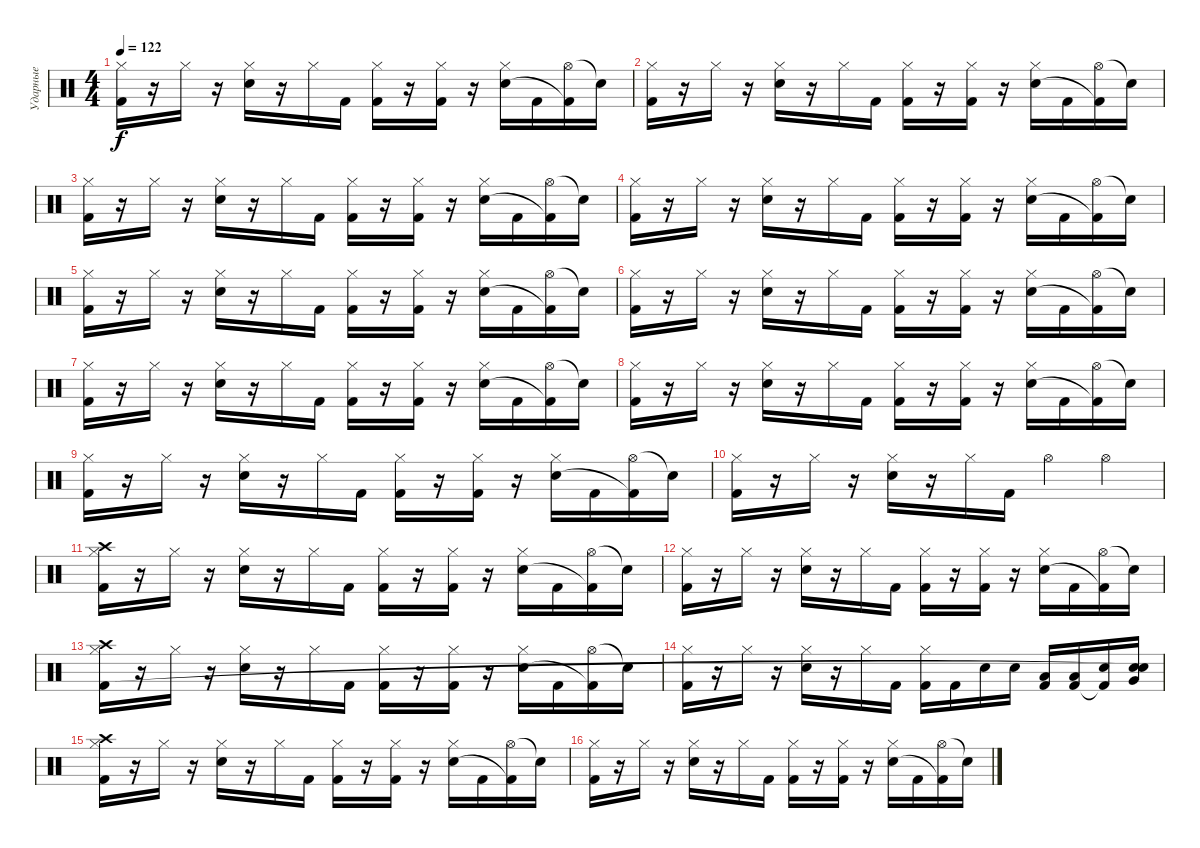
\track ("Ударные" "Ударные") {instrument percussion}
\staff {score}
\articulation defaults
\ts (4 4)
\tempo 122
\clef neutral
\ks c
("Hi-Hat (closed)" "Kick (hit) 2").16{dy f} r.16 "Hi-Hat (closed)".16 r.16 ("Hi-Hat (closed)" "Snare (hit) 2").16 r.16 "Hi-Hat (closed)".16 "Kick (hit) 2".16 ("Hi-Hat (closed)" "Kick (hit) 2").16 r.16 ("Hi-Hat (closed)" "Kick (hit) 2").16 r.16 ("Hi-Hat (closed)" "Snare (hit) 2").16 "Kick (hit) 2".16 ("Hi-Hat (open)" "Kick (hit) 2"{t}).16 "Snare (hit)"{t}.16 |
("Hi-Hat (closed)" "Kick (hit) 2").16 r.16 "Hi-Hat (closed)".16 r.16 ("Hi-Hat (closed)" "Snare (hit) 2").16 r.16 "Hi-Hat (closed)".16 "Kick (hit) 2".16 ("Hi-Hat (closed)" "Kick (hit) 2").16 r.16 ("Hi-Hat (closed)" "Kick (hit) 2").16 r.16 ("Hi-Hat (closed)" "Snare (hit) 2").16 "Kick (hit) 2".16 ("Hi-Hat (open)" "Kick (hit) 2"{t}).16 "Snare (hit)"{t}.16 |
("Hi-Hat (closed)" "Kick (hit) 2").16 r.16 "Hi-Hat (closed)".16 r.16 ("Hi-Hat (closed)" "Snare (hit) 2").16 r.16 "Hi-Hat (closed)".16 "Kick (hit) 2".16 ("Hi-Hat (closed)" "Kick (hit) 2").16 r.16 ("Hi-Hat (closed)" "Kick (hit) 2").16 r.16 ("Hi-Hat (closed)" "Snare (hit) 2").16 "Kick (hit) 2".16 ("Hi-Hat (open)" "Kick (hit) 2"{t}).16 "Snare (hit)"{t}.16 |
("Hi-Hat (closed)" "Kick (hit) 2").16 r.16 "Hi-Hat (closed)".16 r.16 ("Hi-Hat (closed)" "Snare (hit) 2").16 r.16 "Hi-Hat (closed)".16 "Kick (hit) 2".16 ("Hi-Hat (closed)" "Kick (hit) 2").16 r.16 ("Hi-Hat (closed)" "Kick (hit) 2").16 r.16 ("Hi-Hat (closed)" "Snare (hit) 2").16 "Kick (hit) 2".16 ("Hi-Hat (open)" "Kick (hit) 2"{t}).16 "Snare (hit)"{t}.16 |
("Hi-Hat (closed)" "Kick (hit) 2").16 r.16 "Hi-Hat (closed)".16 r.16 ("Hi-Hat (closed)" "Snare (hit) 2").16 r.16 "Hi-Hat (closed)".16 "Kick (hit) 2".16 ("Hi-Hat (closed)" "Kick (hit) 2").16 r.16 ("Hi-Hat (closed)" "Kick (hit) 2").16 r.16 ("Hi-Hat (closed)" "Snare (hit) 2").16 "Kick (hit) 2".16 ("Hi-Hat (open)" "Kick (hit) 2"{t}).16 "Snare (hit)"{t}.16 |
("Hi-Hat (closed)" "Kick (hit) 2").16 r.16 "Hi-Hat (closed)".16 r.16 ("Hi-Hat (closed)" "Snare (hit) 2").16 r.16 "Hi-Hat (closed)".16 "Kick (hit) 2".16 ("Hi-Hat (closed)" "Kick (hit) 2").16 r.16 ("Hi-Hat (closed)" "Kick (hit) 2").16 r.16 ("Hi-Hat (closed)" "Snare (hit) 2").16 "Kick (hit) 2".16 ("Hi-Hat (open)" "Kick (hit) 2"{t}).16 "Snare (hit)"{t}.16 |
("Hi-Hat (closed)" "Kick (hit) 2").16 r.16 "Hi-Hat (closed)".16 r.16 ("Hi-Hat (closed)" "Snare (hit) 2").16 r.16 "Hi-Hat (closed)".16 "Kick (hit) 2".16 ("Hi-Hat (closed)" "Kick (hit) 2").16 r.16 ("Hi-Hat (closed)" "Kick (hit) 2").16 r.16 ("Hi-Hat (closed)" "Snare (hit) 2").16 "Kick (hit) 2".16 ("Hi-Hat (open)" "Kick (hit) 2"{t}).16 "Snare (hit)"{t}.16 |
("Hi-Hat (closed)" "Kick (hit) 2").16 r.16 "Hi-Hat (closed)".16 r.16 ("Hi-Hat (closed)" "Snare (hit) 2").16 r.16 "Hi-Hat (closed)".16 "Kick (hit) 2".16 ("Hi-Hat (closed)" "Kick (hit) 2").16 r.16 ("Hi-Hat (closed)" "Kick (hit) 2").16 r.16 ("Hi-Hat (closed)" "Snare (hit) 2").16 "Kick (hit) 2".16 ("Hi-Hat (open)" "Kick (hit) 2"{t}).16 "Snare (hit)"{t}.16 |
("Hi-Hat (closed)" "Kick (hit) 2").16 r.16 "Hi-Hat (closed)".16 r.16 ("Hi-Hat (closed)" "Snare (hit) 2").16 r.16 "Hi-Hat (closed)".16 "Kick (hit) 2".16 ("Hi-Hat (closed)" "Kick (hit) 2").16 r.16 ("Hi-Hat (closed)" "Kick (hit) 2").16 r.16 ("Hi-Hat (closed)" "Snare (hit) 2").16 "Kick (hit) 2".16 ("Hi-Hat (open)" "Kick (hit) 2"{t}).16 "Snare (hit)"{t}.16 |
("Hi-Hat (closed)" "Kick (hit) 2").16 r.16 "Hi-Hat (closed)".16 r.16 ("Hi-Hat (closed)" "Snare (hit) 2").16 r.16 "Hi-Hat (closed)".16 "Kick (hit) 2".16 "Hi-Hat (open)".4 "Hi-Hat (open)".4 |
("Hi-Hat (closed)" "Crash high (hit)" "Kick (hit) 2").16 r.16 "Hi-Hat (closed)".16 r.16 ("Hi-Hat (closed)" "Snare (hit) 2").16 r.16 "Hi-Hat (closed)".16 "Kick (hit) 2".16 ("Hi-Hat (closed)" "Kick (hit) 2").16 r.16 ("Hi-Hat (closed)" "Kick (hit) 2").16 r.16 ("Hi-Hat (closed)" "Snare (hit) 2").16 "Kick (hit) 2".16 ("Hi-Hat (open)" "Kick (hit) 2"{t}).16 "Snare (hit)"{t}.16 |
("Hi-Hat (closed)" "Kick (hit) 2").16 r.16 "Hi-Hat (closed)".16 r.16 ("Hi-Hat (closed)" "Snare (hit) 2").16 r.16 "Hi-Hat (closed)".16 "Kick (hit) 2".16 ("Hi-Hat (closed)" "Kick (hit) 2").16 r.16 ("Hi-Hat (closed)" "Kick (hit) 2").16 r.16 ("Hi-Hat (closed)" "Snare (hit) 2").16 "Kick (hit) 2".16 ("Hi-Hat (open)" "Kick (hit) 2"{t}).16 "Snare (hit)"{t}.16 |
("Hi-Hat (closed)" "Crash high (hit)" "Kick (hit) 2").16 r.16 "Hi-Hat (closed)".16 r.16 ("Hi-Hat (closed)" "Snare (hit) 2").16 r.16 "Hi-Hat (closed)".16 "Kick (hit) 2".16 ("Hi-Hat (closed)" "Kick (hit) 2").16 r.16 ("Hi-Hat (closed)" "Kick (hit) 2").16 r.16 ("Hi-Hat (closed)" "Snare (hit) 2").16 "Kick (hit) 2".16 ("Hi-Hat (open)" "Kick (hit) 2"{t}).16 "Snare (hit)"{t}.16 |
("Hi-Hat (closed)" "Kick (hit) 2").16 r.16 "Hi-Hat (closed)".16 r.16 ("Hi-Hat (closed)" "Snare (hit) 2").16 r.16 "Hi-Hat (closed)".16 "Kick (hit) 2".16 ("Hi-Hat (closed)" "Kick (hit) 2").16 "Kick (hit) 2".16 "Snare (hit) 2".16 "Snare (hit) 2".16 ("Low Floor Tom (hit)" "Kick (hit) 2").16 ("Low Floor Tom (hit)" "Kick (hit) 2").16 ("Snare (hit) 2" "Kick (hit) 2"{t}).16 ("Very Low Tom (hit)" "Snare (hit) 2" "Snare (hit)"{t}).16 |
("Hi-Hat (closed)" "Crash high (hit)" "Kick (hit) 2").16 r.16 "Hi-Hat (closed)".16 r.16 ("Hi-Hat (closed)" "Snare (hit) 2").16 r.16 "Hi-Hat (closed)".16 "Kick (hit) 2".16 ("Hi-Hat (closed)" "Kick (hit) 2").16 r.16 ("Hi-Hat (closed)" "Kick (hit) 2").16 r.16 ("Hi-Hat (closed)" "Snare (hit) 2").16 "Kick (hit) 2".16 ("Hi-Hat (open)" "Kick (hit) 2"{t}).16 "Snare (hit)"{t}.16 |
("Hi-Hat (closed)" "Kick (hit) 2").16 r.16 "Hi-Hat (closed)".16 r.16 ("Hi-Hat (closed)" "Snare (hit) 2").16 r.16 "Hi-Hat (closed)".16 "Kick (hit) 2".16 ("Hi-Hat (closed)" "Kick (hit) 2").16 r.16 ("Hi-Hat (closed)" "Kick (hit) 2").16 r.16 ("Hi-Hat (closed)" "Snare (hit) 2").16 "Kick (hit) 2".16 ("Hi-Hat (open)" "Kick (hit) 2"{t}).16 "Snare (hit)"{t}.16
